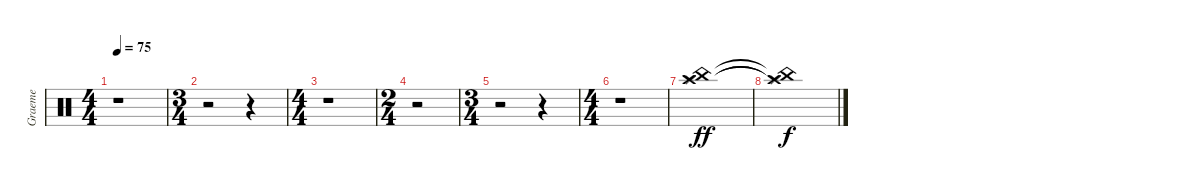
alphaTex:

\track ("Graeme" "Graeme") {instrument percussion}
\staff {score}
\articulation defaults
\ts (4 4)
\tempo 75
\clef neutral
\ks c
r.1{dy ff} |
\ts (3 4)
r.2 r.4 |
\ts (4 4)
r.1 |
\ts (2 4)
r.2 |
\ts (3 4)
r.2 r.4 |
\ts (4 4)
r.1 |
("China (hit)" "Crash high (hit)" "Splash (hit)").1 |
("China (hit)"{t} "Crash high (hit)"{t} "Splash (hit)"{t}).1{dy f}
